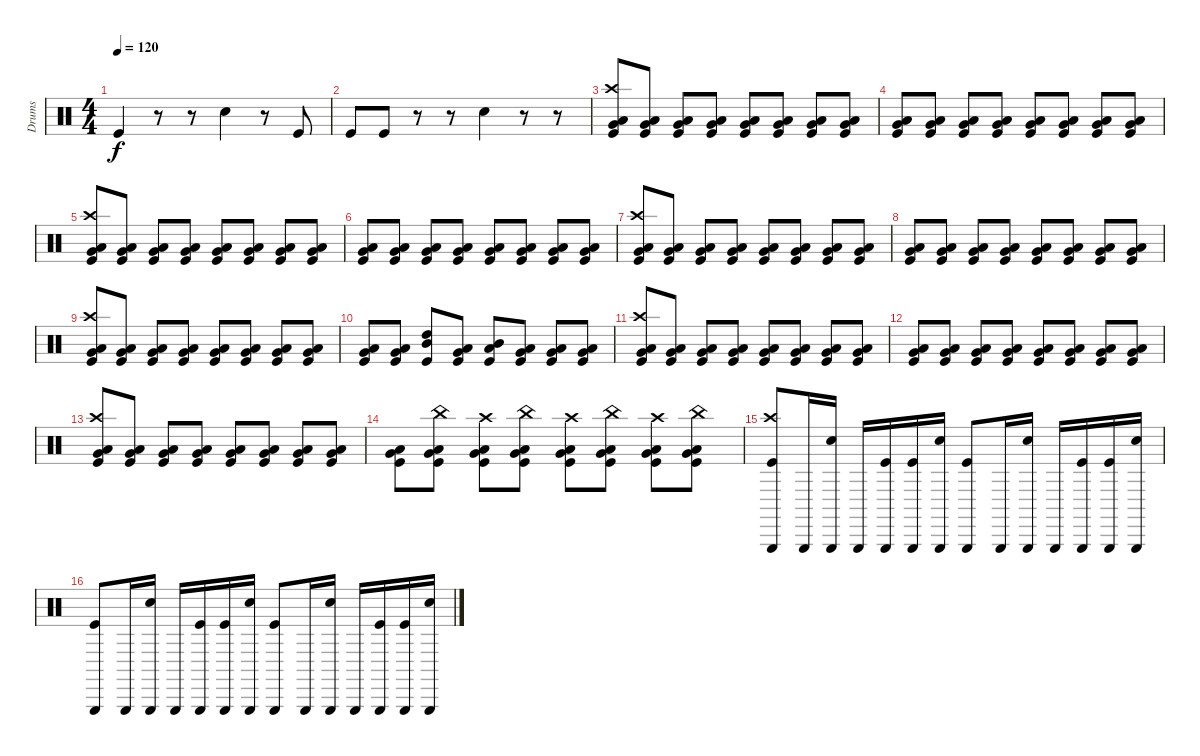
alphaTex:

\track ("Drums" "Drums") {instrument percussion}
\staff {score}
\articulation defaults
\ts (4 4)
\tempo 120
\clef neutral
\ks c "Kick (hit)".4{dy f}
r.8 r.8 "Snare (hit) 2".4 r.8 "Kick (hit)".8 |
"Kick (hit)".8 "Kick (hit)".8 r.8 r.8 "Snare (hit) 2".4 r.8 r.8 |
("Crash high (hit)" "Low Floor Tom (hit)" "Very Low Tom (hit)" "Kick (hit)").8 ("Low Floor Tom (hit)" "Very Low Tom (hit)" "Kick (hit)").8 ("Low Floor Tom (hit)" "Very Low Tom (hit)" "Kick (hit)").8 ("Low Floor Tom (hit)" "Very Low Tom (hit)" "Kick (hit)").8 ("Low Floor Tom (hit)" "Very Low Tom (hit)" "Kick (hit)").8 ("Low Floor Tom (hit)" "Very Low Tom (hit)" "Kick (hit)").8 ("Low Floor Tom (hit)" "Very Low Tom (hit)" "Kick (hit)").8 ("Low Floor Tom (hit)" "Very Low Tom (hit)" "Kick (hit)").8 |
("Low Floor Tom (hit)" "Very Low Tom (hit)" "Kick (hit)").8 ("Low Floor Tom (hit)" "Very Low Tom (hit)" "Kick (hit)").8 ("Low Floor Tom (hit)" "Very Low Tom (hit)" "Kick (hit)").8 ("Low Floor Tom (hit)" "Very Low Tom (hit)" "Kick (hit)").8 ("Low Floor Tom (hit)" "Very Low Tom (hit)" "Kick (hit)").8 ("Low Floor Tom (hit)" "Very Low Tom (hit)" "Kick (hit)").8 ("Low Floor Tom (hit)" "Very Low Tom (hit)" "Kick (hit)").8 ("Low Floor Tom (hit)" "Very Low Tom (hit)" "Kick (hit)").8 |
("Crash high (hit)" "Low Floor Tom (hit)" "Very Low Tom (hit)" "Kick (hit)").8 ("Low Floor Tom (hit)" "Very Low Tom (hit)" "Kick (hit)").8 ("Low Floor Tom (hit)" "Very Low Tom (hit)" "Kick (hit)").8 ("Low Floor Tom (hit)" "Very Low Tom (hit)" "Kick (hit)").8 ("Low Floor Tom (hit)" "Very Low Tom (hit)" "Kick (hit)").8 ("Low Floor Tom (hit)" "Very Low Tom (hit)" "Kick (hit)").8 ("Low Floor Tom (hit)" "Very Low Tom (hit)" "Kick (hit)").8 ("Low Floor Tom (hit)" "Very Low Tom (hit)" "Kick (hit)").8 |
("Low Floor Tom (hit)" "Very Low Tom (hit)" "Kick (hit)").8 ("Low Floor Tom (hit)" "Very Low Tom (hit)" "Kick (hit)").8 ("Low Floor Tom (hit)" "Very Low Tom (hit)" "Kick (hit)").8 ("Low Floor Tom (hit)" "Very Low Tom (hit)" "Kick (hit)").8 ("Low Floor Tom (hit)" "Very Low Tom (hit)" "Kick (hit)").8 ("Low Floor Tom (hit)" "Very Low Tom (hit)" "Kick (hit)").8 ("Low Floor Tom (hit)" "Very Low Tom (hit)" "Kick (hit)").8 ("Low Floor Tom (hit)" "Very Low Tom (hit)" "Kick (hit)").8 |
("Crash high (hit)" "Low Floor Tom (hit)" "Very Low Tom (hit)" "Kick (hit)").8 ("Low Floor Tom (hit)" "Very Low Tom (hit)" "Kick (hit)").8 ("Low Floor Tom (hit)" "Very Low Tom (hit)" "Kick (hit)").8 ("Low Floor Tom (hit)" "Very Low Tom (hit)" "Kick (hit)").8 ("Low Floor Tom (hit)" "Very Low Tom (hit)" "Kick (hit)").8 ("Low Floor Tom (hit)" "Very Low Tom (hit)" "Kick (hit)").8 ("Low Floor Tom (hit)" "Very Low Tom (hit)" "Kick (hit)").8 ("Low Floor Tom (hit)" "Very Low Tom (hit)" "Kick (hit)").8 |
("Low Floor Tom (hit)" "Very Low Tom (hit)" "Kick (hit)").8 ("Low Floor Tom (hit)" "Very Low Tom (hit)" "Kick (hit)").8 ("Low Floor Tom (hit)" "Very Low Tom (hit)" "Kick (hit)").8 ("Low Floor Tom (hit)" "Very Low Tom (hit)" "Kick (hit)").8 ("Low Floor Tom (hit)" "Very Low Tom (hit)" "Kick (hit)").8 ("Low Floor Tom (hit)" "Very Low Tom (hit)" "Kick (hit)").8 ("Low Floor Tom (hit)" "Very Low Tom (hit)" "Kick (hit)").8 ("Low Floor Tom (hit)" "Very Low Tom (hit)" "Kick (hit)").8 |
("Crash high (hit)" "Low Floor Tom (hit)" "Very Low Tom (hit)" "Kick (hit)").8 ("Low Floor Tom (hit)" "Very Low Tom (hit)" "Kick (hit)").8 ("Low Floor Tom (hit)" "Very Low Tom (hit)" "Kick (hit)").8 ("Low Floor Tom (hit)" "Very Low Tom (hit)" "Kick (hit)").8 ("Low Floor Tom (hit)" "Very Low Tom (hit)" "Kick (hit)").8 ("Low Floor Tom (hit)" "Very Low Tom (hit)" "Kick (hit)").8 ("Low Floor Tom (hit)" "Very Low Tom (hit)" "Kick (hit)").8 ("Low Floor Tom (hit)" "Very Low Tom (hit)" "Kick (hit)").8 |
("Low Floor Tom (hit)" "Very Low Tom (hit)" "Kick (hit)").8 ("Low Floor Tom (hit)" "Very Low Tom (hit)" "Kick (hit)").8 ("Mid Tom (hit)" "High Tom (hit)" "Kick (hit)").8 ("Low Floor Tom (hit)" "Very Low Tom (hit)" "Kick (hit)").8 ("Low Tom (hit)" "Mid Tom (hit)" "Kick (hit)").8 ("Low Floor Tom (hit)" "Very Low Tom (hit)" "Kick (hit)").8 ("Very Low Tom (hit)" "Low Tom (hit)" "Kick (hit)").8 ("Low Floor Tom (hit)" "Very Low Tom (hit)" "Kick (hit)").8 |
("Crash high (hit)" "Low Floor Tom (hit)" "Very Low Tom (hit)" "Kick (hit)").8 ("Low Floor Tom (hit)" "Very Low Tom (hit)" "Kick (hit)").8 ("Low Floor Tom (hit)" "Very Low Tom (hit)" "Kick (hit)").8 ("Low Floor Tom (hit)" "Very Low Tom (hit)" "Kick (hit)").8 ("Low Floor Tom (hit)" "Very Low Tom (hit)" "Kick (hit)").8 ("Low Floor Tom (hit)" "Very Low Tom (hit)" "Kick (hit)").8 ("Low Floor Tom (hit)" "Very Low Tom (hit)" "Kick (hit)").8 ("Low Floor Tom (hit)" "Very Low Tom (hit)" "Kick (hit)").8 |
("Low Floor Tom (hit)" "Very Low Tom (hit)" "Kick (hit)").8 ("Low Floor Tom (hit)" "Very Low Tom (hit)" "Kick (hit)").8 ("Low Floor Tom (hit)" "Very Low Tom (hit)" "Kick (hit)").8 ("Low Floor Tom (hit)" "Very Low Tom (hit)" "Kick (hit)").8 ("Low Floor Tom (hit)" "Very Low Tom (hit)" "Kick (hit)").8 ("Low Floor Tom (hit)" "Very Low Tom (hit)" "Kick (hit)").8 ("Low Floor Tom (hit)" "Very Low Tom (hit)" "Kick (hit)").8 ("Low Floor Tom (hit)" "Very Low Tom (hit)" "Kick (hit)").8 |
("Crash high (hit)" "Low Floor Tom (hit)" "Very Low Tom (hit)" "Kick (hit)").8 ("Low Floor Tom (hit)" "Very Low Tom (hit)" "Kick (hit)").8 ("Low Floor Tom (hit)" "Very Low Tom (hit)" "Kick (hit)").8 ("Low Floor Tom (hit)" "Very Low Tom (hit)" "Kick (hit)").8 ("Low Floor Tom (hit)" "Very Low Tom (hit)" "Kick (hit)").8 ("Low Floor Tom (hit)" "Very Low Tom (hit)" "Kick (hit)").8 ("Low Floor Tom (hit)" "Very Low Tom (hit)" "Kick (hit)").8 ("Low Floor Tom (hit)" "Very Low Tom (hit)" "Kick (hit)").8 |
("Low Floor Tom (hit)" "Very Low Tom (hit)" "Kick (hit)").8 ("China (hit)" "Low Floor Tom (hit)" "Very Low Tom (hit)" "Kick (hit)").8 ("Crash high (hit)" "Low Floor Tom (hit)" "Very Low Tom (hit)" "Kick (hit)").8 ("China (hit)" "Low Floor Tom (hit)" "Very Low Tom (hit)" "Kick (hit)").8 ("Crash high (hit)" "Low Floor Tom (hit)" "Very Low Tom (hit)" "Kick (hit)").8 ("China (hit)" "Low Floor Tom (hit)" "Very Low Tom (hit)" "Kick (hit)").8 ("Crash high (hit)" "Low Floor Tom (hit)" "Very Low Tom (hit)" "Kick (hit)").8 ("China (hit)" "Low Floor Tom (hit)" "Very Low Tom (hit)" "Kick (hit)").8 |
("Crash high (hit)" "Triangle (hit)" "Kick (hit)").8 "Triangle (hit)".16 ("Triangle (hit)" "Snare (hit) 2").16 "Triangle (hit)".16 ("Triangle (hit)" "Kick (hit)").16 ("Triangle (hit)" "Kick (hit)").16 ("Triangle (hit)" "Snare (hit) 2").16 ("Triangle (hit)" "Kick (hit)").8 "Triangle (hit)".16 ("Triangle (hit)" "Snare (hit) 2").16 "Triangle (hit)".16 ("Triangle (hit)" "Kick (hit)").16 ("Triangle (hit)" "Kick (hit)").16 ("Triangle (hit)" "Snare (hit) 2").16 |
("Triangle (hit)" "Kick (hit)").8 "Triangle (hit)".16 ("Triangle (hit)" "Snare (hit) 2").16 "Triangle (hit)".16 ("Triangle (hit)" "Kick (hit)").16 ("Triangle (hit)" "Kick (hit)").16 ("Triangle (hit)" "Snare (hit) 2").16 ("Triangle (hit)" "Kick (hit)").8 "Triangle (hit)".16 ("Triangle (hit)" "Snare (hit) 2").16 "Triangle (hit)".16 ("Triangle (hit)" "Kick (hit)").16 ("Triangle (hit)" "Kick (hit)").16 ("Triangle (hit)" "Snare (hit) 2").16
